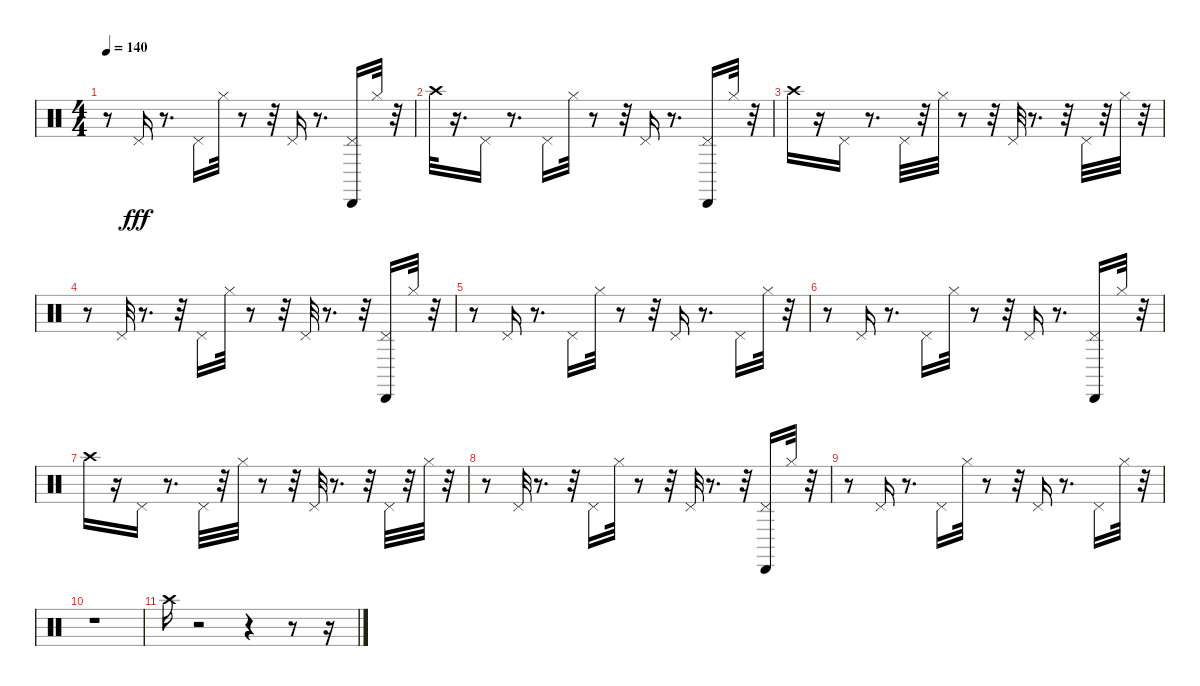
\track "" {instrument percussion}
\staff {score}
\articulation defaults
\ts (4 4)
\tempo 140
\clef neutral
\ks c
r.8{dy fff} "Pedal Hi-Hat (hit)".16 r.8{d} "Pedal Hi-Hat (hit)".16 "Hi-Hat (closed)".32 r.8 r.32 "Pedal Hi-Hat (hit)".16 r.8{d} ("Cabasa (hit)" "Pedal Hi-Hat (hit)").16 "Hi-Hat (closed)".32 r.32 |
"Crash high (hit)".32 r.16{d} "Pedal Hi-Hat (hit)".16 r.8{d} "Pedal Hi-Hat (hit)".16 "Hi-Hat (closed)".32 r.8 r.32 "Pedal Hi-Hat (hit)".16 r.8{d} ("Cabasa (hit)" "Pedal Hi-Hat (hit)").16 "Hi-Hat (closed)".32 r.32 |
"Crash high (hit)".16 r.16 "Pedal Hi-Hat (hit)".16 r.8{d} "Pedal Hi-Hat (hit)".32 r.32 "Hi-Hat (closed)".32 r.8 r.32 "Pedal Hi-Hat (hit)".32 r.8{d} r.32 "Pedal Hi-Hat (hit)".32 r.32 "Hi-Hat (closed)".32 r.32 |
r.8 "Pedal Hi-Hat (hit)".32 r.8{d} r.32 "Pedal Hi-Hat (hit)".16 "Hi-Hat (closed)".32 r.8 r.32 "Pedal Hi-Hat (hit)".32 r.8{d} r.32 ("Cabasa (hit)" "Pedal Hi-Hat (hit)").16 "Hi-Hat (closed)".32 r.32 |
r.8 "Pedal Hi-Hat (hit)".16 r.8{d} "Pedal Hi-Hat (hit)".16 "Hi-Hat (closed)".32 r.8 r.32 "Pedal Hi-Hat (hit)".16 r.8{d} "Pedal Hi-Hat (hit)".16 "Hi-Hat (closed)".32 r.32 |
r.8 "Pedal Hi-Hat (hit)".16 r.8{d} "Pedal Hi-Hat (hit)".16 "Hi-Hat (closed)".32 r.8 r.32 "Pedal Hi-Hat (hit)".16 r.8{d} ("Cabasa (hit)" "Pedal Hi-Hat (hit)").16 "Hi-Hat (closed)".32 r.32 |
"Crash high (hit)".16 r.16 "Pedal Hi-Hat (hit)".16 r.8{d} "Pedal Hi-Hat (hit)".32 r.32 "Hi-Hat (closed)".32 r.8 r.32 "Pedal Hi-Hat (hit)".32 r.8{d} r.32 "Pedal Hi-Hat (hit)".32 r.32 "Hi-Hat (closed)".32 r.32 |
r.8 "Pedal Hi-Hat (hit)".32 r.8{d} r.32 "Pedal Hi-Hat (hit)".16 "Hi-Hat (closed)".32 r.8 r.32 "Pedal Hi-Hat (hit)".32 r.8{d} r.32 ("Cabasa (hit)" "Pedal Hi-Hat (hit)").16 "Hi-Hat (closed)".32 r.32 |
r.8 "Pedal Hi-Hat (hit)".16 r.8{d} "Pedal Hi-Hat (hit)".16 "Hi-Hat (closed)".32 r.8 r.32 "Pedal Hi-Hat (hit)".16 r.8{d} "Pedal Hi-Hat (hit)".16 "Hi-Hat (closed)".32 r.32 |
r.1 |
"Crash high (hit)".16 r.2 r.4 r.8 r.16
